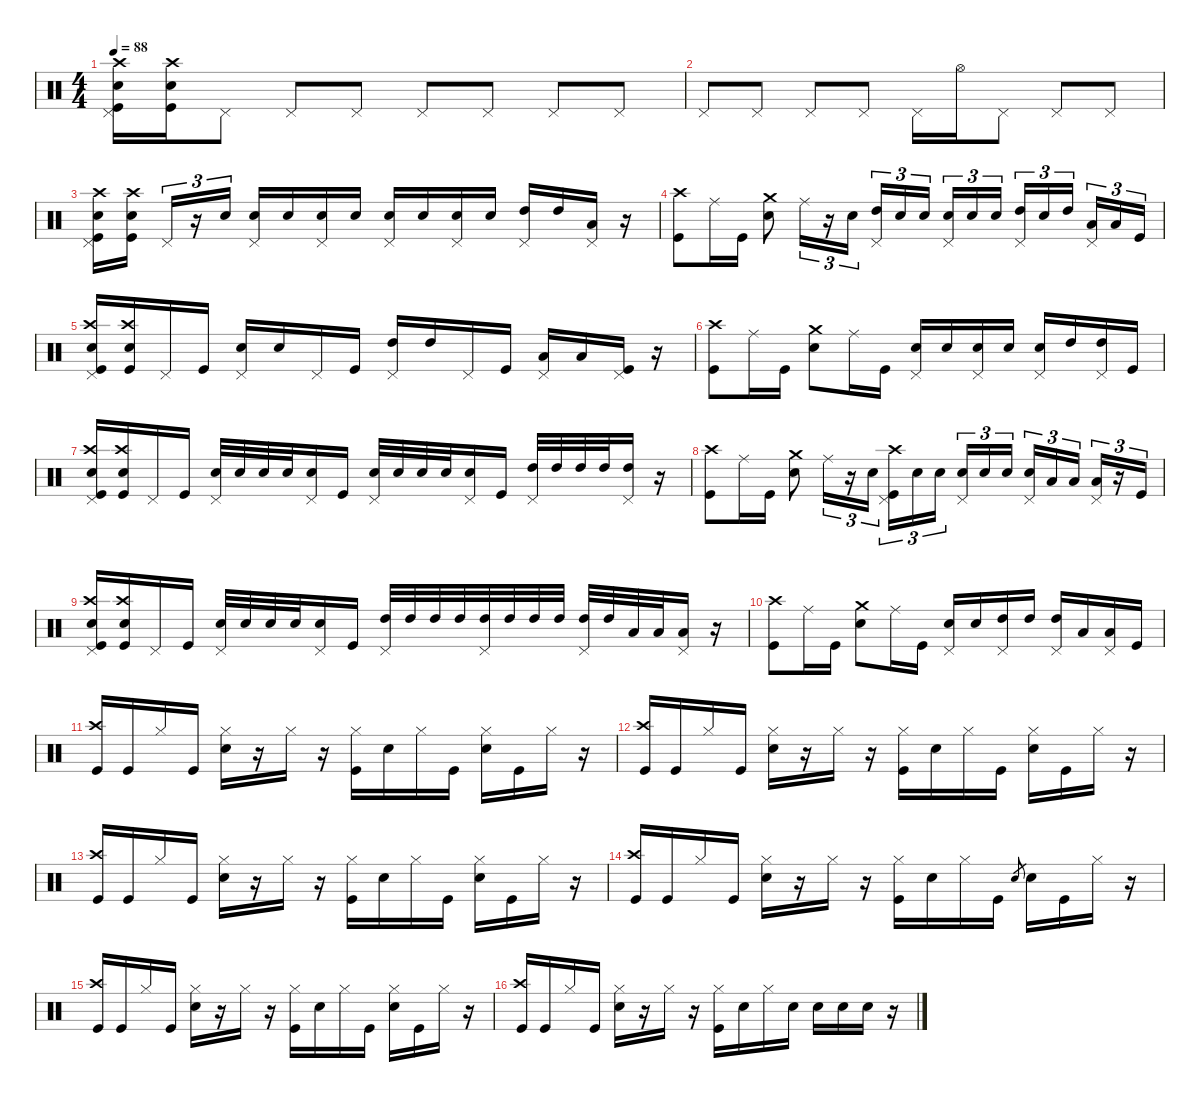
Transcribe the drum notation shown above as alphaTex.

\defaultSystemsLayout 4
\hideDynamics
\bracketExtendMode nobrackets
\singleTrackTrackNamePolicy hidden
\multiTrackTrackNamePolicy hidden
\firstSystemTrackNameMode fullname
\firstSystemTrackNameOrientation horizontal
\otherSystemsTrackNameOrientation horizontal
\track ("Drums" "drm.") {instrument percussion}
\staff {score}
\articulation defaults
\ts (4 4)
\tempo 88
\clef neutral
\ks c
("Crash high (hit)" "Pedal Hi-Hat (hit)" "Snare (hit) 2" "Kick (hit)").16{dy f beam Down} ("Crash high (hit)" "Snare (hit) 2" "Kick (hit)").16{beam Down} "Pedal Hi-Hat (hit)".8{dy p beam Down} "Pedal Hi-Hat (hit)".8{beam Up} "Pedal Hi-Hat (hit)".8{beam Up} "Pedal Hi-Hat (hit)".8{beam Up} "Pedal Hi-Hat (hit)".8{beam Up} "Pedal Hi-Hat (hit)".8{beam Up} "Pedal Hi-Hat (hit)".8{beam Up} |
"Pedal Hi-Hat (hit)".8{beam Up} "Pedal Hi-Hat (hit)".8{beam Up} "Pedal Hi-Hat (hit)".8{beam Up} "Pedal Hi-Hat (hit)".8{beam Up} "Pedal Hi-Hat (hit)".16{beam Down} "Hi-Hat (open)".16{dy mf beam Down} "Pedal Hi-Hat (hit)".8{dy p beam Down} "Pedal Hi-Hat (hit)".8{beam Up} "Pedal Hi-Hat (hit)".8{beam Up} |
("Crash high (hit)" "Pedal Hi-Hat (hit)" "Snare (hit) 2" "Kick (hit)").16{dy f beam Down} ("Crash high (hit)" "Snare (hit) 2" "Kick (hit)").16{beam Down} "Pedal Hi-Hat (hit)".16{tu (3 2) dy p beam Up} r.16{tu (3 2) beam Up} "Snare (hit) 2".16{tu (3 2) beam Up} ("Pedal Hi-Hat (hit)" "Snare (hit) 2").16{beam Up} "Snare (hit) 2".16{dy mf beam Up} ("Pedal Hi-Hat (hit)" "Snare (hit) 2").16{dy p beam Up} "Snare (hit) 2".16{dy f beam Up} ("Pedal Hi-Hat (hit)" "Snare (hit) 2").16{dy p beam Up} "Snare (hit) 2".16{dy mf beam Up} ("Pedal Hi-Hat (hit)" "Snare (hit) 2").16{dy p beam Up} "Snare (hit) 2".16{dy f beam Up} ("Pedal Hi-Hat (hit)" "High Tom (hit)").16{dy p beam Up} "High Tom (hit)".16{dy mf beam Up} ("Pedal Hi-Hat (hit)" "Low Tom (hit)").16{dy p beam Up} r.16{beam Up} |
("Crash high (hit)" "Kick (hit)").8{dy f beam Down} "Ride (middle)".16{dy mf beam Down} "Kick (hit)".16{dy f beam Down} ("Crash medium (hit)" "Snare (hit) 2").8{beam Down} "Ride (middle)".16{tu (3 2) dy mf beam Down} r.16{tu (3 2) beam Down} "Snare (hit) 2".16{tu (3 2) dy p beam Down} ("Pedal Hi-Hat (hit)" "High Tom (hit)").16{tu (3 2) beam Up} "Snare (hit) 2".16{tu (3 2) dy mp beam Up} "Snare (hit) 2".16{tu (3 2) dy mf beam Up} ("Pedal Hi-Hat (hit)" "Snare (hit) 2").16{tu (3 2) dy p beam Up} "Snare (hit) 2".16{tu (3 2) dy mp beam Up} "Snare (hit) 2".16{tu (3 2) dy mf beam Up} ("Pedal Hi-Hat (hit)" "High Tom (hit)").16{tu (3 2) dy p beam Up} "Snare (hit) 2".16{tu (3 2) dy mp beam Up} "High Tom (hit)".16{tu (3 2) dy mf beam Up} ("Pedal Hi-Hat (hit)" "Low Tom (hit)").16{tu (3 2) dy p beam Up} "Low Tom (hit)".16{tu (3 2) dy mp beam Up} "Kick (hit)".16{tu (3 2) dy f beam Up} |
("Crash high (hit)" "Pedal Hi-Hat (hit)" "Snare (hit) 2" "Kick (hit)").16{beam Up} ("Crash high (hit)" "Snare (hit) 2" "Kick (hit)").16{beam Up} "Pedal Hi-Hat (hit)".16{dy p beam Up} "Kick (hit)".16{dy f beam Up} ("Pedal Hi-Hat (hit)" "Snare (hit) 2").16{dy p beam Up} "Snare (hit) 2".16{dy mf beam Up} "Pedal Hi-Hat (hit)".16{dy p beam Up} "Kick (hit)".16{dy f beam Up} ("Pedal Hi-Hat (hit)" "High Tom (hit)").16{dy p beam Up} "High Tom (hit)".16{dy mf beam Up} "Pedal Hi-Hat (hit)".16{dy p beam Up} "Kick (hit)".16{dy f beam Up} ("Pedal Hi-Hat (hit)" "Low Tom (hit)").16{dy p beam Up} "Low Tom (hit)".16{dy mf beam Up} ("Pedal Hi-Hat (hit)" "Kick (hit)").16{dy p beam Up} r.16{beam Up} |
("Crash high (hit)" "Kick (hit)").8{dy f beam Down} "Ride (middle)".16{dy mf beam Down} "Kick (hit)".16{dy f beam Down} ("Crash medium (hit)" "Snare (hit) 2").8{beam Down} "Ride (middle)".16{dy mf beam Down} "Kick (hit)".16{dy f beam Down} ("Pedal Hi-Hat (hit)" "Snare (hit) 2").16{dy p beam Up} "Snare (hit) 2".16{dy f beam Up} ("Pedal Hi-Hat (hit)" "Snare (hit) 2").16{dy p beam Up} "Snare (hit) 2".16{dy f beam Up} ("Pedal Hi-Hat (hit)" "Snare (hit) 2").16{dy p beam Up} "High Tom (hit)".16{dy f beam Up} ("Pedal Hi-Hat (hit)" "High Tom (hit)").16{dy p beam Up} "Kick (hit)".16{dy f beam Up} |
("Crash high (hit)" "Pedal Hi-Hat (hit)" "Snare (hit) 2" "Kick (hit)").16{beam Up} ("Crash high (hit)" "Snare (hit) 2" "Kick (hit)").16{beam Up} "Pedal Hi-Hat (hit)".16{dy p beam Up} "Kick (hit)".16{dy f beam Up} ("Pedal Hi-Hat (hit)" "Snare (hit) 2").32{dy p beam Up} "Snare (hit) 2".32{dy mf beam Up} "Snare (hit) 2".32{dy mp beam Up} "Snare (hit) 2".32{beam Up} ("Pedal Hi-Hat (hit)" "Snare (hit) 2").16{dy p beam Up} "Kick (hit)".16{dy f beam Up} ("Pedal Hi-Hat (hit)" "Snare (hit) 2").32{dy p beam Up} "Snare (hit) 2".32{dy mf beam Up} "Snare (hit) 2".32{dy mp beam Up} "Snare (hit) 2".32{beam Up} ("Pedal Hi-Hat (hit)" "Snare (hit) 2").16{dy p beam Up} "Kick (hit)".16{dy f beam Up} ("Pedal Hi-Hat (hit)" "High Tom (hit)").32{dy p beam Up} "High Tom (hit)".32{dy mf beam Up} "High Tom (hit)".32{dy mp beam Up} "High Tom (hit)".32{beam Up} ("Pedal Hi-Hat (hit)" "High Tom (hit)").16{dy p beam Up} r.16{beam Up} |
("Crash high (hit)" "Kick (hit)").8{dy f beam Down} "Ride (middle)".16{dy mf beam Down} "Kick (hit)".16{dy f beam Down} ("Crash medium (hit)" "Snare (hit) 2").8{beam Down} "Ride (middle)".16{tu (3 2) dy mf beam Down} r.16{tu (3 2) beam Down} "Snare (hit) 2".16{tu (3 2) dy p beam Down} ("Crash high (hit)" "Pedal Hi-Hat (hit)" "Kick (hit)").16{tu (3 2) dy mp beam Down} "Snare (hit) 2".16{tu (3 2) beam Down} "Snare (hit) 2".16{tu (3 2) dy mf beam Down} ("Pedal Hi-Hat (hit)" "Snare (hit) 2").16{tu (3 2) dy p beam Up} "Snare (hit) 2".16{tu (3 2) dy mp beam Up} "Snare (hit) 2".16{tu (3 2) dy mf beam Up} ("Pedal Hi-Hat (hit)" "Snare (hit) 2").16{tu (3 2) dy p beam Up} "Low Tom (hit)".16{tu (3 2) beam Up} "Low Tom (hit)".16{tu (3 2) dy mf beam Up} ("Pedal Hi-Hat (hit)" "Low Tom (hit)").16{tu (3 2) dy p beam Up} r.16{tu (3 2) beam Up} "Kick (hit)".16{tu (3 2) dy f beam Up} |
("Crash high (hit)" "Pedal Hi-Hat (hit)" "Snare (hit) 2" "Kick (hit)").16{beam Up} ("Crash high (hit)" "Snare (hit) 2" "Kick (hit)").16{beam Up} "Pedal Hi-Hat (hit)".16{dy p beam Up} "Kick (hit)".16{dy f beam Up} ("Pedal Hi-Hat (hit)" "Snare (hit) 2").32{dy p beam Up} "Snare (hit) 2".32{dy mf beam Up} "Snare (hit) 2".32{dy mp beam Up} "Snare (hit) 2".32{beam Up} ("Pedal Hi-Hat (hit)" "Snare (hit) 2").16{dy p beam Up} "Kick (hit)".16{dy f beam Up} ("Pedal Hi-Hat (hit)" "High Tom (hit)").32{dy p beam Up} "High Tom (hit)".32{dy mf beam Up} "High Tom (hit)".32{beam Up} "High Tom (hit)".32{dy mp beam Up} ("Pedal Hi-Hat (hit)" "High Tom (hit)").32{dy p beam Up} "High Tom (hit)".32{dy mp beam Up} "High Tom (hit)".32{beam Up} "High Tom (hit)".32{beam Up} ("Pedal Hi-Hat (hit)" "High Tom (hit)").32{dy p beam Up} "High Tom (hit)".32{dy mf beam Up} "Low Tom (hit)".32{beam Up} "Low Tom (hit)".32{beam Up} ("Pedal Hi-Hat (hit)" "Low Tom (hit)").16{dy p beam Up} r.16{beam Up} |
("Crash high (hit)" "Kick (hit)").8{dy f beam Down} "Ride (middle)".16{dy mf beam Down} "Kick (hit)".16{dy f beam Down} ("Crash medium (hit)" "Snare (hit) 2").8{beam Down} "Ride (middle)".16{dy mf beam Down} "Kick (hit)".16{dy f beam Down} ("Pedal Hi-Hat (hit)" "Snare (hit) 2").16{dy p beam Up} "Snare (hit) 2".16{dy pp beam Up} ("Pedal Hi-Hat (hit)" "High Tom (hit)").16{dy p beam Up} "High Tom (hit)".16{dy f beam Up} ("Pedal Hi-Hat (hit)" "High Tom (hit)").16{dy p beam Up} "Low Tom (hit)".16{dy f beam Up} ("Pedal Hi-Hat (hit)" "Low Tom (hit)").16{dy p beam Up} "Kick (hit)".16{dy f beam Up} |
("Crash high (hit)" "Kick (hit)").16{beam Up} "Kick (hit)".16{beam Up} "Hi-Hat (closed)".16{dy p beam Up} "Kick (hit)".16{dy f beam Up} ("Hi-Hat (closed)" "Snare (hit) 2").16{dy mp beam Down} r.16{beam Down} "Hi-Hat (closed)".16{dy p beam Down} r.16{beam Down} ("Hi-Hat (closed)" "Kick (hit)").16{dy mp beam Down} "Snare (hit) 2".16{beam Down} "Hi-Hat (closed)".16{dy p beam Down} "Kick (hit)".16{dy f beam Down} ("Hi-Hat (closed)" "Snare (hit) 2").16{dy mp beam Down} "Kick (hit)".16{dy f beam Down} "Hi-Hat (closed)".16{dy p beam Down} r.16{beam Down} |
("Crash high (hit)" "Kick (hit)").16{dy f beam Up} "Kick (hit)".16{beam Up} "Hi-Hat (closed)".16{dy p beam Up} "Kick (hit)".16{dy f beam Up} ("Hi-Hat (closed)" "Snare (hit) 2").16{dy mp beam Down} r.16{beam Down} "Hi-Hat (closed)".16{dy p beam Down} r.16{beam Down} ("Hi-Hat (closed)" "Kick (hit)").16{dy mp beam Down} "Snare (hit) 2".16{beam Down} "Hi-Hat (closed)".16{dy p beam Down} "Kick (hit)".16{dy f beam Down} ("Hi-Hat (closed)" "Snare (hit) 2").16{dy mp beam Down} "Kick (hit)".16{dy f beam Down} "Hi-Hat (closed)".16{dy p beam Down} r.16{beam Down} |
("Crash high (hit)" "Kick (hit)").16{dy f beam Up} "Kick (hit)".16{beam Up} "Hi-Hat (closed)".16{dy p beam Up} "Kick (hit)".16{dy f beam Up} ("Hi-Hat (closed)" "Snare (hit) 2").16{dy mp beam Down} r.16{beam Down} "Hi-Hat (closed)".16{dy p beam Down} r.16{beam Down} ("Hi-Hat (closed)" "Kick (hit)").16{dy mp beam Down} "Snare (hit) 2".16{beam Down} "Hi-Hat (closed)".16{dy p beam Down} "Kick (hit)".16{dy f beam Down} ("Hi-Hat (closed)" "Snare (hit) 2").16{dy mp beam Down} "Kick (hit)".16{dy f beam Down} "Hi-Hat (closed)".16{dy p beam Down} r.16{beam Down} |
("Crash high (hit)" "Kick (hit)").16{dy f beam Up} "Kick (hit)".16{beam Up} "Hi-Hat (closed)".16{dy p beam Up} "Kick (hit)".16{dy f beam Up} ("Hi-Hat (closed)" "Snare (hit) 2").16{dy mp beam Down} r.16{beam Down} "Hi-Hat (closed)".16{dy p beam Down} r.16{beam Down} ("Hi-Hat (closed)" "Kick (hit)").16{dy mp beam Down} "Snare (hit) 2".16{beam Down} "Hi-Hat (closed)".16{dy p beam Down} "Kick (hit)".16{dy f beam Down} "Snare (hit) 2".8{gr dy mp beam Up} "Snare (hit) 2".16{dy f beam Down} "Kick (hit)".16{beam Down} "Hi-Hat (closed)".16{dy p beam Down} r.16{beam Down} |
("Crash high (hit)" "Kick (hit)").16{dy f beam Up} "Kick (hit)".16{beam Up} "Hi-Hat (closed)".16{dy p beam Up} "Kick (hit)".16{dy f beam Up} ("Hi-Hat (closed)" "Snare (hit) 2").16{dy mp beam Down} r.16{beam Down} "Hi-Hat (closed)".16{dy p beam Down} r.16{beam Down} ("Hi-Hat (closed)" "Kick (hit)").16{dy mp beam Down} "Snare (hit) 2".16{beam Down} "Hi-Hat (closed)".16{dy p beam Down} "Kick (hit)".16{dy f beam Down} ("Hi-Hat (closed)" "Snare (hit) 2").16{dy mp beam Down} "Kick (hit)".16{dy f beam Down} "Hi-Hat (closed)".16{dy p beam Down} r.16{beam Down} |
("Crash high (hit)" "Kick (hit)").16{dy f beam Up} "Kick (hit)".16{beam Up} "Hi-Hat (closed)".16{dy p beam Up} "Kick (hit)".16{dy f beam Up} ("Hi-Hat (closed)" "Snare (hit) 2").16{dy mp beam Down} r.16{beam Down} "Hi-Hat (closed)".16{dy p beam Down} r.16{beam Down} ("Hi-Hat (closed)" "Kick (hit)").16{dy mp beam Down} "Snare (hit) 2".16{beam Down} "Hi-Hat (closed)".16{dy p beam Down} "Snare (hit) 2".16{dy pp beam Down} "Snare (hit) 2".16{dy mf beam Down} "Snare (hit) 2".16{dy f beam Down} "Snare (hit) 2".16{beam Down} r.16{beam Down}
